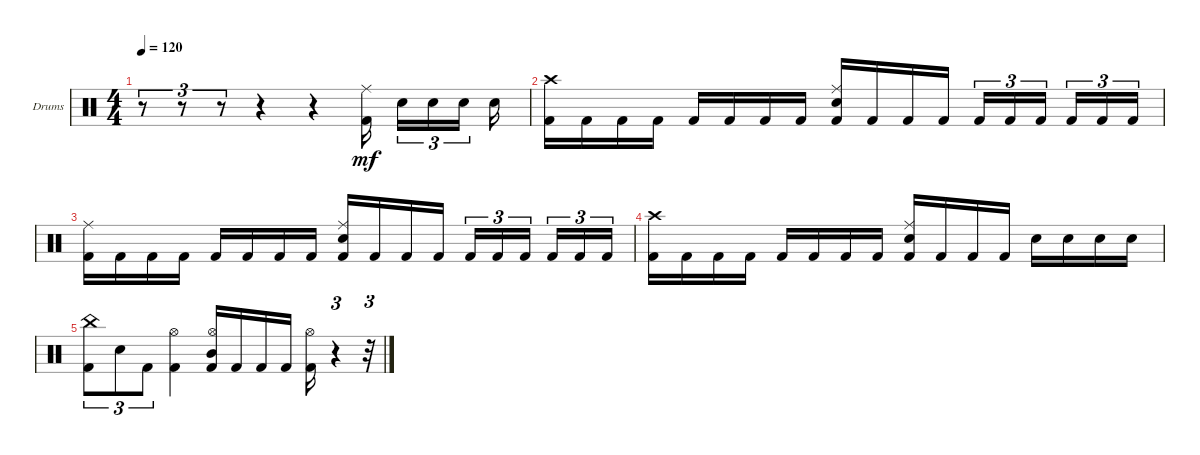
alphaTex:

\defaultSystemsLayout 4
\bracketExtendMode groupsimilarinstruments
\firstSystemTrackNameOrientation horizontal
\otherSystemsTrackNameOrientation horizontal
\track ("Drumkit" "Drums") {instrument percussion}
\staff {score}
\articulation defaults
\ts (4 4)
\tempo 120
\clef neutral
\ks c
r.8{tu (3 2) dy mf} r.8{tu (3 2)} r.8{tu (3 2)} r.4 r.4 ("Kick (hit) 2" "Ride (middle)").16 "Snare (hit) 2".16{tu (3 2)} "Snare (hit) 2".16{tu (3 2)} "Snare (hit) 2".16{tu (3 2)} "Snare (hit) 2".16 |
("Crash high (hit)" "Kick (hit) 2").16 "Kick (hit) 2".16 "Kick (hit) 2".16 "Kick (hit) 2".16 "Kick (hit) 2".16 "Kick (hit) 2".16 "Kick (hit) 2".16 "Kick (hit) 2".16 ("Kick (hit) 2" "Snare (hit) 2" "Ride (middle)").16 "Kick (hit) 2".16 "Kick (hit) 2".16 "Kick (hit) 2".16 "Kick (hit) 2".16{tu (3 2)} "Kick (hit) 2".16{tu (3 2)} "Kick (hit) 2".16{tu (3 2)} "Kick (hit) 2".16{tu (3 2)} "Kick (hit) 2".16{tu (3 2)} "Kick (hit) 2".16{tu (3 2)} |
("Kick (hit) 2" "Ride (middle)").16 "Kick (hit) 2".16 "Kick (hit) 2".16 "Kick (hit) 2".16 "Kick (hit) 2".16 "Kick (hit) 2".16 "Kick (hit) 2".16 "Kick (hit) 2".16 ("Kick (hit) 2" "Snare (hit) 2" "Ride (middle)").16 "Kick (hit) 2".16 "Kick (hit) 2".16 "Kick (hit) 2".16 "Kick (hit) 2".16{tu (3 2)} "Kick (hit) 2".16{tu (3 2)} "Kick (hit) 2".16{tu (3 2)} "Kick (hit) 2".16{tu (3 2)} "Kick (hit) 2".16{tu (3 2)} "Kick (hit) 2".16{tu (3 2)} |
("Crash high (hit)" "Kick (hit) 2").16 "Kick (hit) 2".16 "Kick (hit) 2".16 "Kick (hit) 2".16 "Kick (hit) 2".16 "Kick (hit) 2".16 "Kick (hit) 2".16 "Kick (hit) 2".16 ("Kick (hit) 2" "Snare (hit) 2" "Ride (middle)").16 "Kick (hit) 2".16 "Kick (hit) 2".16 "Kick (hit) 2".16 "Snare (hit) 2".16 "Snare (hit) 2".16 "Snare (hit) 2".16 "Snare (hit) 2".16 |
("Kick (hit) 2" "China (hit)").8{tu (3 2)} "Snare (hit) 2".8{tu (3 2)} "Kick (hit) 2".8{tu (3 2)} ("Kick (hit) 2" "Hi-Hat (open)").4 ("Mid Tom (hit)" "Hi-Hat (open)" "Kick (hit) 2").16 "Kick (hit) 2".16 "Kick (hit) 2".16 "Kick (hit) 2".16 ("Kick (hit) 2" "Hi-Hat (open)").16 r.4{tu (3 2)} r.32{tu (3 2)}
